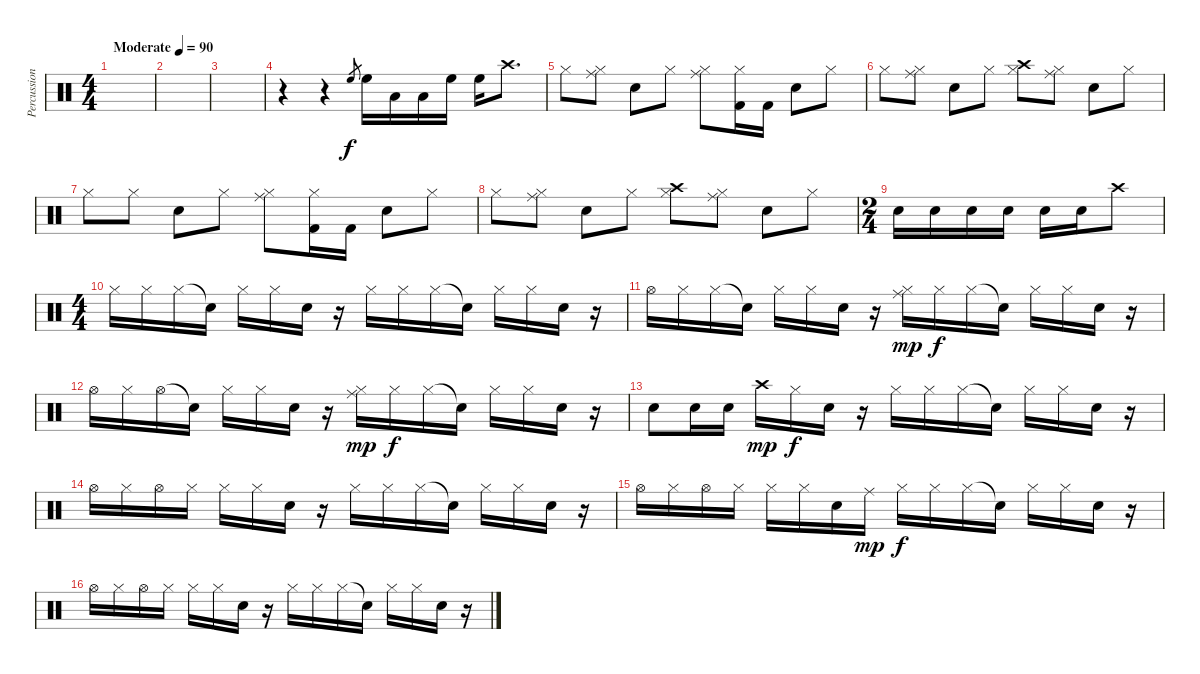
\track ("Percussioni" "Percussion") {instrument percussion}
\staff {score}
\articulation defaults
\ts (4 4)
\tempo (90 "Moderate")
\clef neutral
\ks c
|
|
|
r.4 r.4 "High Floor Tom (hit)".8{gr} "High Floor Tom (hit)".16 "Low Floor Tom (hit)".16 "Low Tom (hit)".16 "High Floor Tom (hit)".16 "High Floor Tom (hit)".16 "Crash high (hit)".8{d} |
"Hi-Hat (closed)".8 ("Ride (middle)" "Hi-Hat (closed)").8 "Snare (hit) 2".8 "Hi-Hat (closed)".8 ("Ride (middle)" "Hi-Hat (closed)").8 ("Hi-Hat (closed)" "Kick (hit) 2").16 "Kick (hit) 2".16 "Snare (hit) 2".8 "Hi-Hat (closed)".8 |
"Hi-Hat (closed)".8 ("Ride (middle)" "Hi-Hat (closed)").8 "Snare (hit) 2".8 "Hi-Hat (closed)".8 ("Crash high (hit)" "Hi-Hat (closed)").8 ("Ride (middle)" "Hi-Hat (closed)").8 "Snare (hit) 2".8 "Hi-Hat (closed)".8 |
"Hi-Hat (closed)".8 "Hi-Hat (closed)".8 "Snare (hit) 2".8 "Hi-Hat (closed)".8 ("Ride (middle)" "Hi-Hat (closed)").8 ("Hi-Hat (closed)" "Kick (hit) 2").16 "Kick (hit) 2".16 "Snare (hit) 2".8 "Hi-Hat (closed)".8 |
"Hi-Hat (closed)".8 ("Ride (middle)" "Hi-Hat (closed)").8 "Snare (hit) 2".8 "Hi-Hat (closed)".8 ("Crash high (hit)" "Hi-Hat (closed)").8 ("Ride (middle)" "Hi-Hat (closed)").8 "Snare (hit) 2".8 "Hi-Hat (closed)".8 |
\ts (2 4)
"Snare (hit) 2".16 "Snare (hit) 2".16 "Snare (hit) 2".16 "Snare (hit) 2".16 "Snare (hit) 2".16 "Snare (hit) 2".16 "Crash high (hit)".8 |
\ts (4 4)
"Hi-Hat (closed)".16 "Hi-Hat (closed)".16 "Hi-Hat (closed)".16 "Snare (hit)"{t}.16 "Hi-Hat (closed)".16 "Hi-Hat (closed)".16 "Snare (hit) 2".16 r.16 "Hi-Hat (closed)".16 "Hi-Hat (closed)".16 "Hi-Hat (closed)".16 "Snare (hit)"{t}.16 "Hi-Hat (closed)".16 "Hi-Hat (closed)".16 "Snare (hit) 2".16 r.16 |
"Hi-Hat (open)".16 "Hi-Hat (closed)".16 "Hi-Hat (closed)".16 "Snare (hit)"{t}.16 "Hi-Hat (closed)".16 "Hi-Hat (closed)".16 "Snare (hit) 2".16 r.16 ("Ride (middle)" "Hi-Hat (closed)").16{dy mp} "Hi-Hat (closed)".16{dy f} "Hi-Hat (closed)".16 "Snare (hit)"{t}.16 "Hi-Hat (closed)".16 "Hi-Hat (closed)".16 "Snare (hit) 2".16 r.16 |
"Hi-Hat (open)".16 "Hi-Hat (closed)".16 "Hi-Hat (open)".16 "Snare (hit)"{t}.16 "Hi-Hat (closed)".16 "Hi-Hat (closed)".16 "Snare (hit) 2".16 r.16 ("Ride (middle)" "Hi-Hat (closed)").16{dy mp} "Hi-Hat (closed)".16{dy f} "Hi-Hat (closed)".16 "Snare (hit)"{t}.16 "Hi-Hat (closed)".16 "Hi-Hat (closed)".16 "Snare (hit) 2".16 r.16 |
"Snare (hit) 2".8 "Snare (hit) 2".16 "Snare (hit) 2".16 "Crash high (hit)".16{dy mp} "Hi-Hat (closed)".16{dy f} "Snare (hit) 2".16 r.16 "Hi-Hat (closed)".16 "Hi-Hat (closed)".16 "Hi-Hat (closed)".16 "Snare (hit)"{t}.16 "Hi-Hat (closed)".16 "Hi-Hat (closed)".16 "Snare (hit) 2".16 r.16 |
"Hi-Hat (open)".16 "Hi-Hat (closed)".16 "Hi-Hat (open)".16 "Hi-Hat (closed)".16 "Hi-Hat (closed)".16 "Hi-Hat (closed)".16 "Snare (hit) 2".16 r.16 "Hi-Hat (closed)".16 "Hi-Hat (closed)".16 "Hi-Hat (closed)".16 "Snare (hit)"{t}.16 "Hi-Hat (closed)".16 "Hi-Hat (closed)".16 "Snare (hit) 2".16 r.16 |
"Hi-Hat (open)".16 "Hi-Hat (closed)".16 "Hi-Hat (open)".16 "Hi-Hat (closed)".16 "Hi-Hat (closed)".16 "Hi-Hat (closed)".16 "Snare (hit) 2".16 "Ride (middle)".16{dy mp} "Hi-Hat (closed)".16{dy f} "Hi-Hat (closed)".16 "Hi-Hat (closed)".16 "Snare (hit)"{t}.16 "Hi-Hat (closed)".16 "Hi-Hat (closed)".16 "Snare (hit) 2".16 r.16 |
"Hi-Hat (open)".16 "Hi-Hat (closed)".16 "Hi-Hat (open)".16 "Hi-Hat (closed)".16 "Hi-Hat (closed)".16 "Hi-Hat (closed)".16 "Snare (hit) 2".16 r.16 "Hi-Hat (closed)".16 "Hi-Hat (closed)".16 "Hi-Hat (closed)".16 "Snare (hit)"{t}.16 "Hi-Hat (closed)".16 "Hi-Hat (closed)".16 "Snare (hit) 2".16 r.16
